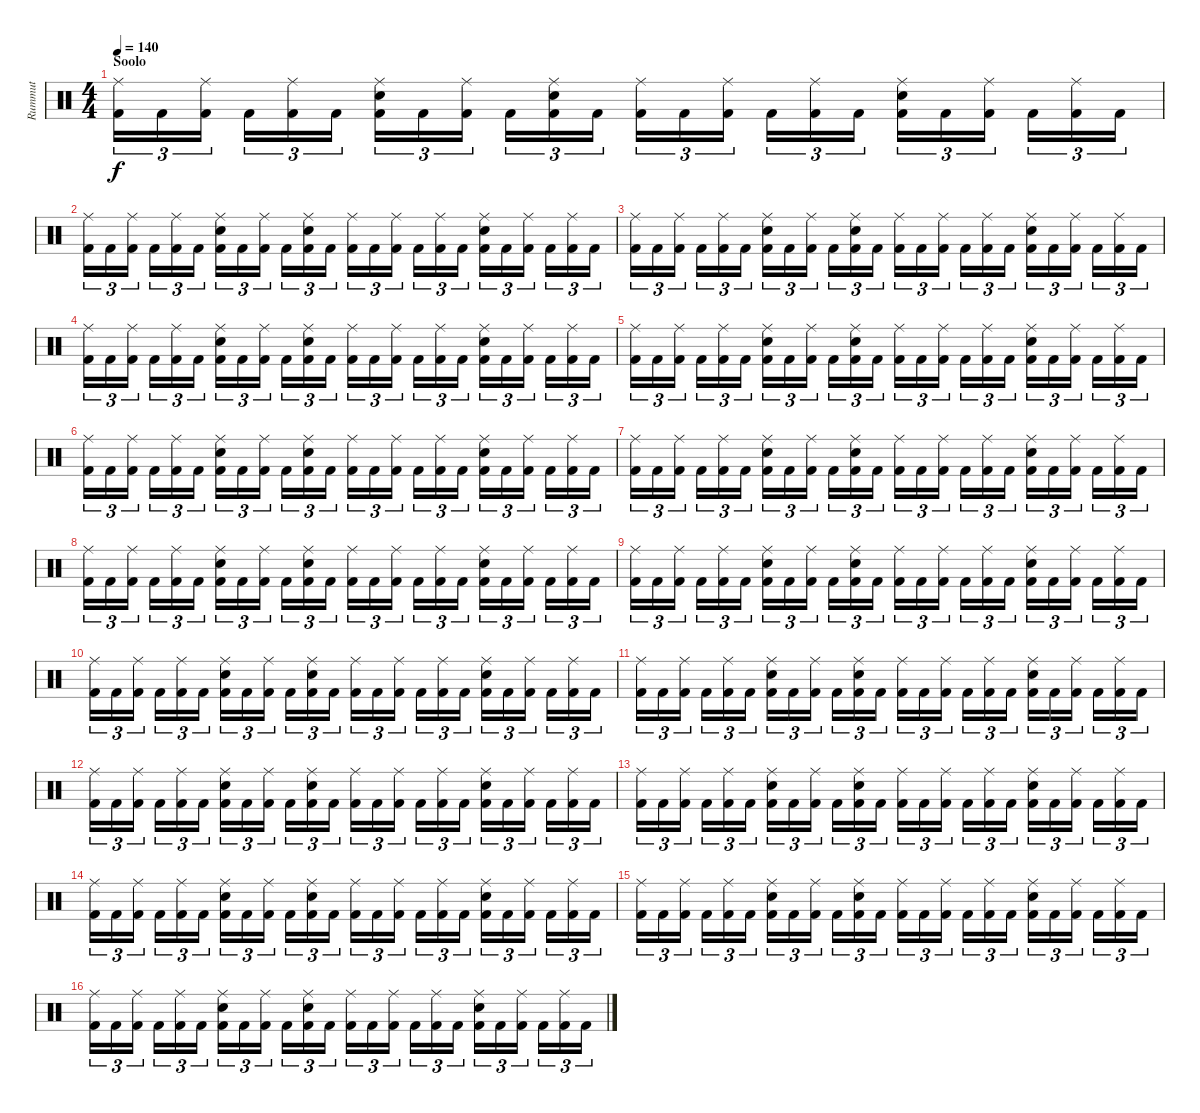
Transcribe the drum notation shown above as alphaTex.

\track ("Rummut" "Rummut") {instrument percussion}
\staff {score}
\articulation defaults
\ts (4 4)
\section ("" "Soolo")
\tempo 140
\clef neutral
\ks c
("Ride (middle)" "Kick (hit) 2").16{tu (3 2) dy f} "Kick (hit) 2".16{tu (3 2)} ("Ride (middle)" "Kick (hit) 2").16{tu (3 2)} "Kick (hit) 2".16{tu (3 2)} ("Ride (middle)" "Kick (hit) 2").16{tu (3 2)} "Kick (hit) 2".16{tu (3 2)} ("Ride (middle)" "Snare (hit) 2" "Kick (hit) 2").16{tu (3 2)} "Kick (hit) 2".16{tu (3 2)} ("Ride (middle)" "Kick (hit) 2").16{tu (3 2)} "Kick (hit) 2".16{tu (3 2)} ("Ride (middle)" "Snare (hit) 2" "Kick (hit) 2").16{tu (3 2)} "Kick (hit) 2".16{tu (3 2)} ("Ride (middle)" "Kick (hit) 2").16{tu (3 2)} "Kick (hit) 2".16{tu (3 2)} ("Ride (middle)" "Kick (hit) 2").16{tu (3 2)} "Kick (hit) 2".16{tu (3 2)} ("Ride (middle)" "Kick (hit) 2").16{tu (3 2)} "Kick (hit) 2".16{tu (3 2)} ("Ride (middle)" "Snare (hit) 2" "Kick (hit) 2").16{tu (3 2)} "Kick (hit) 2".16{tu (3 2)} ("Ride (middle)" "Kick (hit) 2").16{tu (3 2)} "Kick (hit) 2".16{tu (3 2)} ("Ride (middle)" "Kick (hit) 2").16{tu (3 2)} "Kick (hit) 2".16{tu (3 2)} |
("Ride (middle)" "Kick (hit) 2").16{tu (3 2)} "Kick (hit) 2".16{tu (3 2)} ("Ride (middle)" "Kick (hit) 2").16{tu (3 2)} "Kick (hit) 2".16{tu (3 2)} ("Ride (middle)" "Kick (hit) 2").16{tu (3 2)} "Kick (hit) 2".16{tu (3 2)} ("Ride (middle)" "Snare (hit) 2" "Kick (hit) 2").16{tu (3 2)} "Kick (hit) 2".16{tu (3 2)} ("Ride (middle)" "Kick (hit) 2").16{tu (3 2)} "Kick (hit) 2".16{tu (3 2)} ("Ride (middle)" "Snare (hit) 2" "Kick (hit) 2").16{tu (3 2)} "Kick (hit) 2".16{tu (3 2)} ("Ride (middle)" "Kick (hit) 2").16{tu (3 2)} "Kick (hit) 2".16{tu (3 2)} ("Ride (middle)" "Kick (hit) 2").16{tu (3 2)} "Kick (hit) 2".16{tu (3 2)} ("Ride (middle)" "Kick (hit) 2").16{tu (3 2)} "Kick (hit) 2".16{tu (3 2)} ("Ride (middle)" "Snare (hit) 2" "Kick (hit) 2").16{tu (3 2)} "Kick (hit) 2".16{tu (3 2)} ("Ride (middle)" "Kick (hit) 2").16{tu (3 2)} "Kick (hit) 2".16{tu (3 2)} ("Ride (middle)" "Kick (hit) 2").16{tu (3 2)} "Kick (hit) 2".16{tu (3 2)} |
("Ride (middle)" "Kick (hit) 2").16{tu (3 2)} "Kick (hit) 2".16{tu (3 2)} ("Ride (middle)" "Kick (hit) 2").16{tu (3 2)} "Kick (hit) 2".16{tu (3 2)} ("Ride (middle)" "Kick (hit) 2").16{tu (3 2)} "Kick (hit) 2".16{tu (3 2)} ("Ride (middle)" "Snare (hit) 2" "Kick (hit) 2").16{tu (3 2)} "Kick (hit) 2".16{tu (3 2)} ("Ride (middle)" "Kick (hit) 2").16{tu (3 2)} "Kick (hit) 2".16{tu (3 2)} ("Ride (middle)" "Snare (hit) 2" "Kick (hit) 2").16{tu (3 2)} "Kick (hit) 2".16{tu (3 2)} ("Ride (middle)" "Kick (hit) 2").16{tu (3 2)} "Kick (hit) 2".16{tu (3 2)} ("Ride (middle)" "Kick (hit) 2").16{tu (3 2)} "Kick (hit) 2".16{tu (3 2)} ("Ride (middle)" "Kick (hit) 2").16{tu (3 2)} "Kick (hit) 2".16{tu (3 2)} ("Ride (middle)" "Snare (hit) 2" "Kick (hit) 2").16{tu (3 2)} "Kick (hit) 2".16{tu (3 2)} ("Ride (middle)" "Kick (hit) 2").16{tu (3 2)} "Kick (hit) 2".16{tu (3 2)} ("Ride (middle)" "Kick (hit) 2").16{tu (3 2)} "Kick (hit) 2".16{tu (3 2)} |
("Ride (middle)" "Kick (hit) 2").16{tu (3 2)} "Kick (hit) 2".16{tu (3 2)} ("Ride (middle)" "Kick (hit) 2").16{tu (3 2)} "Kick (hit) 2".16{tu (3 2)} ("Ride (middle)" "Kick (hit) 2").16{tu (3 2)} "Kick (hit) 2".16{tu (3 2)} ("Ride (middle)" "Snare (hit) 2" "Kick (hit) 2").16{tu (3 2)} "Kick (hit) 2".16{tu (3 2)} ("Ride (middle)" "Kick (hit) 2").16{tu (3 2)} "Kick (hit) 2".16{tu (3 2)} ("Ride (middle)" "Snare (hit) 2" "Kick (hit) 2").16{tu (3 2)} "Kick (hit) 2".16{tu (3 2)} ("Ride (middle)" "Kick (hit) 2").16{tu (3 2)} "Kick (hit) 2".16{tu (3 2)} ("Ride (middle)" "Kick (hit) 2").16{tu (3 2)} "Kick (hit) 2".16{tu (3 2)} ("Ride (middle)" "Kick (hit) 2").16{tu (3 2)} "Kick (hit) 2".16{tu (3 2)} ("Ride (middle)" "Snare (hit) 2" "Kick (hit) 2").16{tu (3 2)} "Kick (hit) 2".16{tu (3 2)} ("Ride (middle)" "Kick (hit) 2").16{tu (3 2)} "Kick (hit) 2".16{tu (3 2)} ("Ride (middle)" "Kick (hit) 2").16{tu (3 2)} "Kick (hit) 2".16{tu (3 2)} |
("Ride (middle)" "Kick (hit) 2").16{tu (3 2)} "Kick (hit) 2".16{tu (3 2)} ("Ride (middle)" "Kick (hit) 2").16{tu (3 2)} "Kick (hit) 2".16{tu (3 2)} ("Ride (middle)" "Kick (hit) 2").16{tu (3 2)} "Kick (hit) 2".16{tu (3 2)} ("Ride (middle)" "Snare (hit) 2" "Kick (hit) 2").16{tu (3 2)} "Kick (hit) 2".16{tu (3 2)} ("Ride (middle)" "Kick (hit) 2").16{tu (3 2)} "Kick (hit) 2".16{tu (3 2)} ("Ride (middle)" "Snare (hit) 2" "Kick (hit) 2").16{tu (3 2)} "Kick (hit) 2".16{tu (3 2)} ("Ride (middle)" "Kick (hit) 2").16{tu (3 2)} "Kick (hit) 2".16{tu (3 2)} ("Ride (middle)" "Kick (hit) 2").16{tu (3 2)} "Kick (hit) 2".16{tu (3 2)} ("Ride (middle)" "Kick (hit) 2").16{tu (3 2)} "Kick (hit) 2".16{tu (3 2)} ("Ride (middle)" "Snare (hit) 2" "Kick (hit) 2").16{tu (3 2)} "Kick (hit) 2".16{tu (3 2)} ("Ride (middle)" "Kick (hit) 2").16{tu (3 2)} "Kick (hit) 2".16{tu (3 2)} ("Ride (middle)" "Kick (hit) 2").16{tu (3 2)} "Kick (hit) 2".16{tu (3 2)} |
("Ride (middle)" "Kick (hit) 2").16{tu (3 2)} "Kick (hit) 2".16{tu (3 2)} ("Ride (middle)" "Kick (hit) 2").16{tu (3 2)} "Kick (hit) 2".16{tu (3 2)} ("Ride (middle)" "Kick (hit) 2").16{tu (3 2)} "Kick (hit) 2".16{tu (3 2)} ("Ride (middle)" "Snare (hit) 2" "Kick (hit) 2").16{tu (3 2)} "Kick (hit) 2".16{tu (3 2)} ("Ride (middle)" "Kick (hit) 2").16{tu (3 2)} "Kick (hit) 2".16{tu (3 2)} ("Ride (middle)" "Snare (hit) 2" "Kick (hit) 2").16{tu (3 2)} "Kick (hit) 2".16{tu (3 2)} ("Ride (middle)" "Kick (hit) 2").16{tu (3 2)} "Kick (hit) 2".16{tu (3 2)} ("Ride (middle)" "Kick (hit) 2").16{tu (3 2)} "Kick (hit) 2".16{tu (3 2)} ("Ride (middle)" "Kick (hit) 2").16{tu (3 2)} "Kick (hit) 2".16{tu (3 2)} ("Ride (middle)" "Snare (hit) 2" "Kick (hit) 2").16{tu (3 2)} "Kick (hit) 2".16{tu (3 2)} ("Ride (middle)" "Kick (hit) 2").16{tu (3 2)} "Kick (hit) 2".16{tu (3 2)} ("Ride (middle)" "Kick (hit) 2").16{tu (3 2)} "Kick (hit) 2".16{tu (3 2)} |
("Ride (middle)" "Kick (hit) 2").16{tu (3 2)} "Kick (hit) 2".16{tu (3 2)} ("Ride (middle)" "Kick (hit) 2").16{tu (3 2)} "Kick (hit) 2".16{tu (3 2)} ("Ride (middle)" "Kick (hit) 2").16{tu (3 2)} "Kick (hit) 2".16{tu (3 2)} ("Ride (middle)" "Snare (hit) 2" "Kick (hit) 2").16{tu (3 2)} "Kick (hit) 2".16{tu (3 2)} ("Ride (middle)" "Kick (hit) 2").16{tu (3 2)} "Kick (hit) 2".16{tu (3 2)} ("Ride (middle)" "Snare (hit) 2" "Kick (hit) 2").16{tu (3 2)} "Kick (hit) 2".16{tu (3 2)} ("Ride (middle)" "Kick (hit) 2").16{tu (3 2)} "Kick (hit) 2".16{tu (3 2)} ("Ride (middle)" "Kick (hit) 2").16{tu (3 2)} "Kick (hit) 2".16{tu (3 2)} ("Ride (middle)" "Kick (hit) 2").16{tu (3 2)} "Kick (hit) 2".16{tu (3 2)} ("Ride (middle)" "Snare (hit) 2" "Kick (hit) 2").16{tu (3 2)} "Kick (hit) 2".16{tu (3 2)} ("Ride (middle)" "Kick (hit) 2").16{tu (3 2)} "Kick (hit) 2".16{tu (3 2)} ("Ride (middle)" "Kick (hit) 2").16{tu (3 2)} "Kick (hit) 2".16{tu (3 2)} |
("Ride (middle)" "Kick (hit) 2").16{tu (3 2)} "Kick (hit) 2".16{tu (3 2)} ("Ride (middle)" "Kick (hit) 2").16{tu (3 2)} "Kick (hit) 2".16{tu (3 2)} ("Ride (middle)" "Kick (hit) 2").16{tu (3 2)} "Kick (hit) 2".16{tu (3 2)} ("Ride (middle)" "Snare (hit) 2" "Kick (hit) 2").16{tu (3 2)} "Kick (hit) 2".16{tu (3 2)} ("Ride (middle)" "Kick (hit) 2").16{tu (3 2)} "Kick (hit) 2".16{tu (3 2)} ("Ride (middle)" "Snare (hit) 2" "Kick (hit) 2").16{tu (3 2)} "Kick (hit) 2".16{tu (3 2)} ("Ride (middle)" "Kick (hit) 2").16{tu (3 2)} "Kick (hit) 2".16{tu (3 2)} ("Ride (middle)" "Kick (hit) 2").16{tu (3 2)} "Kick (hit) 2".16{tu (3 2)} ("Ride (middle)" "Kick (hit) 2").16{tu (3 2)} "Kick (hit) 2".16{tu (3 2)} ("Ride (middle)" "Snare (hit) 2" "Kick (hit) 2").16{tu (3 2)} "Kick (hit) 2".16{tu (3 2)} ("Ride (middle)" "Kick (hit) 2").16{tu (3 2)} "Kick (hit) 2".16{tu (3 2)} ("Ride (middle)" "Kick (hit) 2").16{tu (3 2)} "Kick (hit) 2".16{tu (3 2)} |
("Ride (middle)" "Kick (hit) 2").16{tu (3 2)} "Kick (hit) 2".16{tu (3 2)} ("Ride (middle)" "Kick (hit) 2").16{tu (3 2)} "Kick (hit) 2".16{tu (3 2)} ("Ride (middle)" "Kick (hit) 2").16{tu (3 2)} "Kick (hit) 2".16{tu (3 2)} ("Ride (middle)" "Snare (hit) 2" "Kick (hit) 2").16{tu (3 2)} "Kick (hit) 2".16{tu (3 2)} ("Ride (middle)" "Kick (hit) 2").16{tu (3 2)} "Kick (hit) 2".16{tu (3 2)} ("Ride (middle)" "Snare (hit) 2" "Kick (hit) 2").16{tu (3 2)} "Kick (hit) 2".16{tu (3 2)} ("Ride (middle)" "Kick (hit) 2").16{tu (3 2)} "Kick (hit) 2".16{tu (3 2)} ("Ride (middle)" "Kick (hit) 2").16{tu (3 2)} "Kick (hit) 2".16{tu (3 2)} ("Ride (middle)" "Kick (hit) 2").16{tu (3 2)} "Kick (hit) 2".16{tu (3 2)} ("Ride (middle)" "Snare (hit) 2" "Kick (hit) 2").16{tu (3 2)} "Kick (hit) 2".16{tu (3 2)} ("Ride (middle)" "Kick (hit) 2").16{tu (3 2)} "Kick (hit) 2".16{tu (3 2)} ("Ride (middle)" "Kick (hit) 2").16{tu (3 2)} "Kick (hit) 2".16{tu (3 2)} |
("Ride (middle)" "Kick (hit) 2").16{tu (3 2)} "Kick (hit) 2".16{tu (3 2)} ("Ride (middle)" "Kick (hit) 2").16{tu (3 2)} "Kick (hit) 2".16{tu (3 2)} ("Ride (middle)" "Kick (hit) 2").16{tu (3 2)} "Kick (hit) 2".16{tu (3 2)} ("Ride (middle)" "Snare (hit) 2" "Kick (hit) 2").16{tu (3 2)} "Kick (hit) 2".16{tu (3 2)} ("Ride (middle)" "Kick (hit) 2").16{tu (3 2)} "Kick (hit) 2".16{tu (3 2)} ("Ride (middle)" "Snare (hit) 2" "Kick (hit) 2").16{tu (3 2)} "Kick (hit) 2".16{tu (3 2)} ("Ride (middle)" "Kick (hit) 2").16{tu (3 2)} "Kick (hit) 2".16{tu (3 2)} ("Ride (middle)" "Kick (hit) 2").16{tu (3 2)} "Kick (hit) 2".16{tu (3 2)} ("Ride (middle)" "Kick (hit) 2").16{tu (3 2)} "Kick (hit) 2".16{tu (3 2)} ("Ride (middle)" "Snare (hit) 2" "Kick (hit) 2").16{tu (3 2)} "Kick (hit) 2".16{tu (3 2)} ("Ride (middle)" "Kick (hit) 2").16{tu (3 2)} "Kick (hit) 2".16{tu (3 2)} ("Ride (middle)" "Kick (hit) 2").16{tu (3 2)} "Kick (hit) 2".16{tu (3 2)} |
("Ride (middle)" "Kick (hit) 2").16{tu (3 2)} "Kick (hit) 2".16{tu (3 2)} ("Ride (middle)" "Kick (hit) 2").16{tu (3 2)} "Kick (hit) 2".16{tu (3 2)} ("Ride (middle)" "Kick (hit) 2").16{tu (3 2)} "Kick (hit) 2".16{tu (3 2)} ("Ride (middle)" "Snare (hit) 2" "Kick (hit) 2").16{tu (3 2)} "Kick (hit) 2".16{tu (3 2)} ("Ride (middle)" "Kick (hit) 2").16{tu (3 2)} "Kick (hit) 2".16{tu (3 2)} ("Ride (middle)" "Snare (hit) 2" "Kick (hit) 2").16{tu (3 2)} "Kick (hit) 2".16{tu (3 2)} ("Ride (middle)" "Kick (hit) 2").16{tu (3 2)} "Kick (hit) 2".16{tu (3 2)} ("Ride (middle)" "Kick (hit) 2").16{tu (3 2)} "Kick (hit) 2".16{tu (3 2)} ("Ride (middle)" "Kick (hit) 2").16{tu (3 2)} "Kick (hit) 2".16{tu (3 2)} ("Ride (middle)" "Snare (hit) 2" "Kick (hit) 2").16{tu (3 2)} "Kick (hit) 2".16{tu (3 2)} ("Ride (middle)" "Kick (hit) 2").16{tu (3 2)} "Kick (hit) 2".16{tu (3 2)} ("Ride (middle)" "Kick (hit) 2").16{tu (3 2)} "Kick (hit) 2".16{tu (3 2)} |
("Ride (middle)" "Kick (hit) 2").16{tu (3 2)} "Kick (hit) 2".16{tu (3 2)} ("Ride (middle)" "Kick (hit) 2").16{tu (3 2)} "Kick (hit) 2".16{tu (3 2)} ("Ride (middle)" "Kick (hit) 2").16{tu (3 2)} "Kick (hit) 2".16{tu (3 2)} ("Ride (middle)" "Snare (hit) 2" "Kick (hit) 2").16{tu (3 2)} "Kick (hit) 2".16{tu (3 2)} ("Ride (middle)" "Kick (hit) 2").16{tu (3 2)} "Kick (hit) 2".16{tu (3 2)} ("Ride (middle)" "Snare (hit) 2" "Kick (hit) 2").16{tu (3 2)} "Kick (hit) 2".16{tu (3 2)} ("Ride (middle)" "Kick (hit) 2").16{tu (3 2)} "Kick (hit) 2".16{tu (3 2)} ("Ride (middle)" "Kick (hit) 2").16{tu (3 2)} "Kick (hit) 2".16{tu (3 2)} ("Ride (middle)" "Kick (hit) 2").16{tu (3 2)} "Kick (hit) 2".16{tu (3 2)} ("Ride (middle)" "Snare (hit) 2" "Kick (hit) 2").16{tu (3 2)} "Kick (hit) 2".16{tu (3 2)} ("Ride (middle)" "Kick (hit) 2").16{tu (3 2)} "Kick (hit) 2".16{tu (3 2)} ("Ride (middle)" "Kick (hit) 2").16{tu (3 2)} "Kick (hit) 2".16{tu (3 2)} |
("Ride (middle)" "Kick (hit) 2").16{tu (3 2)} "Kick (hit) 2".16{tu (3 2)} ("Ride (middle)" "Kick (hit) 2").16{tu (3 2)} "Kick (hit) 2".16{tu (3 2)} ("Ride (middle)" "Kick (hit) 2").16{tu (3 2)} "Kick (hit) 2".16{tu (3 2)} ("Ride (middle)" "Snare (hit) 2" "Kick (hit) 2").16{tu (3 2)} "Kick (hit) 2".16{tu (3 2)} ("Ride (middle)" "Kick (hit) 2").16{tu (3 2)} "Kick (hit) 2".16{tu (3 2)} ("Ride (middle)" "Snare (hit) 2" "Kick (hit) 2").16{tu (3 2)} "Kick (hit) 2".16{tu (3 2)} ("Ride (middle)" "Kick (hit) 2").16{tu (3 2)} "Kick (hit) 2".16{tu (3 2)} ("Ride (middle)" "Kick (hit) 2").16{tu (3 2)} "Kick (hit) 2".16{tu (3 2)} ("Ride (middle)" "Kick (hit) 2").16{tu (3 2)} "Kick (hit) 2".16{tu (3 2)} ("Ride (middle)" "Snare (hit) 2" "Kick (hit) 2").16{tu (3 2)} "Kick (hit) 2".16{tu (3 2)} ("Ride (middle)" "Kick (hit) 2").16{tu (3 2)} "Kick (hit) 2".16{tu (3 2)} ("Ride (middle)" "Kick (hit) 2").16{tu (3 2)} "Kick (hit) 2".16{tu (3 2)} |
("Ride (middle)" "Kick (hit) 2").16{tu (3 2)} "Kick (hit) 2".16{tu (3 2)} ("Ride (middle)" "Kick (hit) 2").16{tu (3 2)} "Kick (hit) 2".16{tu (3 2)} ("Ride (middle)" "Kick (hit) 2").16{tu (3 2)} "Kick (hit) 2".16{tu (3 2)} ("Ride (middle)" "Snare (hit) 2" "Kick (hit) 2").16{tu (3 2)} "Kick (hit) 2".16{tu (3 2)} ("Ride (middle)" "Kick (hit) 2").16{tu (3 2)} "Kick (hit) 2".16{tu (3 2)} ("Ride (middle)" "Snare (hit) 2" "Kick (hit) 2").16{tu (3 2)} "Kick (hit) 2".16{tu (3 2)} ("Ride (middle)" "Kick (hit) 2").16{tu (3 2)} "Kick (hit) 2".16{tu (3 2)} ("Ride (middle)" "Kick (hit) 2").16{tu (3 2)} "Kick (hit) 2".16{tu (3 2)} ("Ride (middle)" "Kick (hit) 2").16{tu (3 2)} "Kick (hit) 2".16{tu (3 2)} ("Ride (middle)" "Snare (hit) 2" "Kick (hit) 2").16{tu (3 2)} "Kick (hit) 2".16{tu (3 2)} ("Ride (middle)" "Kick (hit) 2").16{tu (3 2)} "Kick (hit) 2".16{tu (3 2)} ("Ride (middle)" "Kick (hit) 2").16{tu (3 2)} "Kick (hit) 2".16{tu (3 2)} |
("Ride (middle)" "Kick (hit) 2").16{tu (3 2)} "Kick (hit) 2".16{tu (3 2)} ("Ride (middle)" "Kick (hit) 2").16{tu (3 2)} "Kick (hit) 2".16{tu (3 2)} ("Ride (middle)" "Kick (hit) 2").16{tu (3 2)} "Kick (hit) 2".16{tu (3 2)} ("Ride (middle)" "Snare (hit) 2" "Kick (hit) 2").16{tu (3 2)} "Kick (hit) 2".16{tu (3 2)} ("Ride (middle)" "Kick (hit) 2").16{tu (3 2)} "Kick (hit) 2".16{tu (3 2)} ("Ride (middle)" "Snare (hit) 2" "Kick (hit) 2").16{tu (3 2)} "Kick (hit) 2".16{tu (3 2)} ("Ride (middle)" "Kick (hit) 2").16{tu (3 2)} "Kick (hit) 2".16{tu (3 2)} ("Ride (middle)" "Kick (hit) 2").16{tu (3 2)} "Kick (hit) 2".16{tu (3 2)} ("Ride (middle)" "Kick (hit) 2").16{tu (3 2)} "Kick (hit) 2".16{tu (3 2)} ("Ride (middle)" "Snare (hit) 2" "Kick (hit) 2").16{tu (3 2)} "Kick (hit) 2".16{tu (3 2)} ("Ride (middle)" "Kick (hit) 2").16{tu (3 2)} "Kick (hit) 2".16{tu (3 2)} ("Ride (middle)" "Kick (hit) 2").16{tu (3 2)} "Kick (hit) 2".16{tu (3 2)} |
("Ride (middle)" "Kick (hit) 2").16{tu (3 2)} "Kick (hit) 2".16{tu (3 2)} ("Ride (middle)" "Kick (hit) 2").16{tu (3 2)} "Kick (hit) 2".16{tu (3 2)} ("Ride (middle)" "Kick (hit) 2").16{tu (3 2)} "Kick (hit) 2".16{tu (3 2)} ("Ride (middle)" "Snare (hit) 2" "Kick (hit) 2").16{tu (3 2)} "Kick (hit) 2".16{tu (3 2)} ("Ride (middle)" "Kick (hit) 2").16{tu (3 2)} "Kick (hit) 2".16{tu (3 2)} ("Ride (middle)" "Snare (hit) 2" "Kick (hit) 2").16{tu (3 2)} "Kick (hit) 2".16{tu (3 2)} ("Ride (middle)" "Kick (hit) 2").16{tu (3 2)} "Kick (hit) 2".16{tu (3 2)} ("Ride (middle)" "Kick (hit) 2").16{tu (3 2)} "Kick (hit) 2".16{tu (3 2)} ("Ride (middle)" "Kick (hit) 2").16{tu (3 2)} "Kick (hit) 2".16{tu (3 2)} ("Ride (middle)" "Snare (hit) 2" "Kick (hit) 2").16{tu (3 2)} "Kick (hit) 2".16{tu (3 2)} ("Ride (middle)" "Kick (hit) 2").16{tu (3 2)} "Kick (hit) 2".16{tu (3 2)} ("Ride (middle)" "Kick (hit) 2").16{tu (3 2)} "Kick (hit) 2".16{tu (3 2)}
